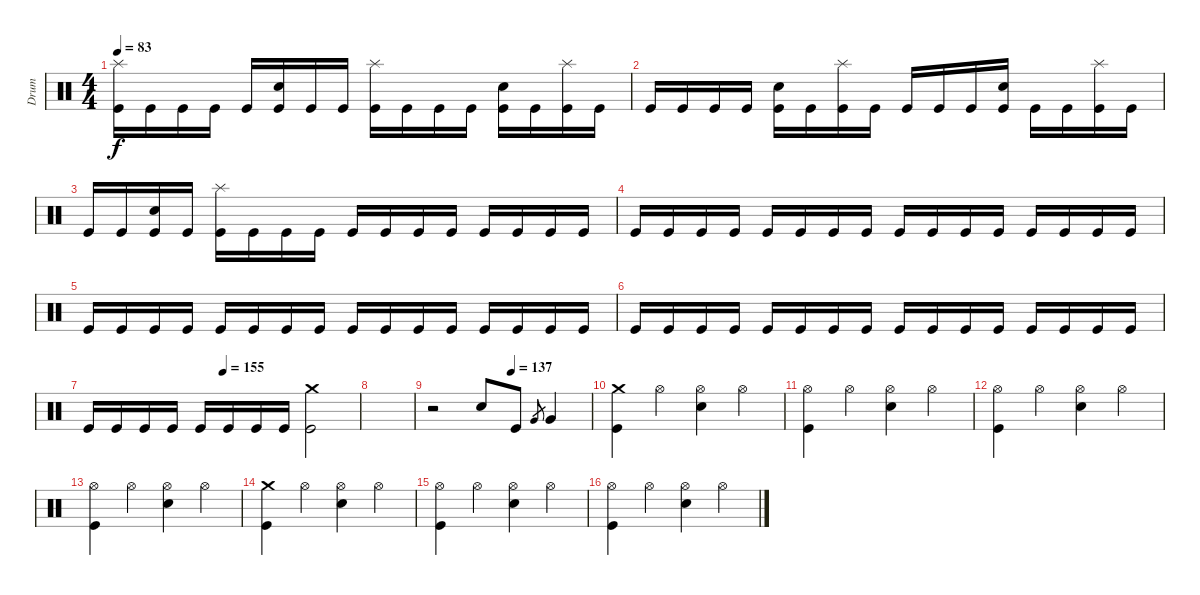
\track ("Drum" "Drum") {instrument percussion}
\staff {score}
\articulation defaults
\ts (4 4)
\tempo 83
\clef neutral
\ks c
("Kick (hit)" "Splash (hit)").16{dy f} "Kick (hit)".16 "Kick (hit)".16 "Kick (hit)".16 "Kick (hit)".16 ("Kick (hit)" "Electric Snare (hit)").16 "Kick (hit)".16 "Kick (hit)".16 ("Kick (hit)" "Splash (hit)").16 "Kick (hit)".16 "Kick (hit)".16 "Kick (hit)".16 ("Kick (hit)" "Electric Snare (hit)").16 "Kick (hit)".16 ("Kick (hit)" "Splash (hit)").16 "Kick (hit)".16 |
"Kick (hit)".16 "Kick (hit)".16 "Kick (hit)".16 "Kick (hit)".16 ("Kick (hit)" "Electric Snare (hit)").16 "Kick (hit)".16 ("Kick (hit)" "Splash (hit)").16 "Kick (hit)".16 "Kick (hit)".16 "Kick (hit)".16 "Kick (hit)".16 ("Kick (hit)" "Electric Snare (hit)").16 "Kick (hit)".16 "Kick (hit)".16 ("Kick (hit)" "Splash (hit)").16 "Kick (hit)".16 |
"Kick (hit)".16 "Kick (hit)".16 ("Kick (hit)" "Electric Snare (hit)").16 "Kick (hit)".16 ("Kick (hit)" "Splash (hit)").16 "Kick (hit)".16 "Kick (hit)".16 "Kick (hit)".16 "Kick (hit)".16 "Kick (hit)".16 "Kick (hit)".16 "Kick (hit)".16 "Kick (hit)".16 "Kick (hit)".16 "Kick (hit)".16 "Kick (hit)".16 |
"Kick (hit)".16 "Kick (hit)".16 "Kick (hit)".16 "Kick (hit)".16 "Kick (hit)".16 "Kick (hit)".16 "Kick (hit)".16 "Kick (hit)".16 "Kick (hit)".16 "Kick (hit)".16 "Kick (hit)".16 "Kick (hit)".16 "Kick (hit)".16 "Kick (hit)".16 "Kick (hit)".16 "Kick (hit)".16 |
"Kick (hit)".16 "Kick (hit)".16 "Kick (hit)".16 "Kick (hit)".16 "Kick (hit)".16 "Kick (hit)".16 "Kick (hit)".16 "Kick (hit)".16 "Kick (hit)".16 "Kick (hit)".16 "Kick (hit)".16 "Kick (hit)".16 "Kick (hit)".16 "Kick (hit)".16 "Kick (hit)".16 "Kick (hit)".16 |
"Kick (hit)".16 "Kick (hit)".16 "Kick (hit)".16 "Kick (hit)".16 "Kick (hit)".16 "Kick (hit)".16 "Kick (hit)".16 "Kick (hit)".16 "Kick (hit)".16 "Kick (hit)".16 "Kick (hit)".16 "Kick (hit)".16 "Kick (hit)".16 "Kick (hit)".16 "Kick (hit)".16 "Kick (hit)".16 |
\tempo (155 0.5)
"Kick (hit)".16 "Kick (hit)".16 "Kick (hit)".16 "Kick (hit)".16 "Kick (hit)".16 "Kick (hit)".16 "Kick (hit)".16 "Kick (hit)".16 ("Kick (hit)" "Crash medium (hit)").2 |
|
\tempo (137 0.5)
r.2 "Electric Snare (hit)".8 "Kick (hit)".8 "Very Low Tom (hit)".8{gr} "Very Low Tom (hit)".4 |
("Kick (hit)" "Crash medium (hit)").4 "Hi-Hat (open)".4 ("Electric Snare (hit)" "Hi-Hat (open)").4 "Hi-Hat (open)".4 |
("Kick (hit)" "Hi-Hat (open)").4 "Hi-Hat (open)".4 ("Electric Snare (hit)" "Hi-Hat (open)").4 "Hi-Hat (open)".4 |
("Kick (hit)" "Hi-Hat (open)").4 "Hi-Hat (open)".4 ("Electric Snare (hit)" "Hi-Hat (open)").4 "Hi-Hat (open)".4 |
("Kick (hit)" "Hi-Hat (open)").4 "Hi-Hat (open)".4 ("Electric Snare (hit)" "Hi-Hat (open)").4 "Hi-Hat (open)".4 |
("Kick (hit)" "Crash medium (hit)").4 "Hi-Hat (open)".4 ("Electric Snare (hit)" "Hi-Hat (open)").4 "Hi-Hat (open)".4 |
("Kick (hit)" "Hi-Hat (open)").4 "Hi-Hat (open)".4 ("Electric Snare (hit)" "Hi-Hat (open)").4 "Hi-Hat (open)".4 |
("Kick (hit)" "Hi-Hat (open)").4 "Hi-Hat (open)".4 ("Electric Snare (hit)" "Hi-Hat (open)").4 "Hi-Hat (open)".4
